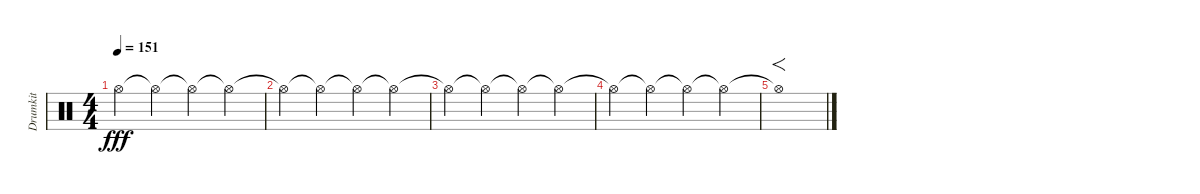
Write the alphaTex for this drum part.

\track ("Drumkit" "Drumkit") {instrument percussion}
\staff {score}
\articulation defaults
\ts (4 4)
\tempo 151
\clef neutral
\ks c "Hi-Hat (open)"{t}.4{dy fff} "Hi-Hat (open)"{t}.4 "Hi-Hat (open)"{t}.4 "Hi-Hat (open)"{t}.4
|
"Hi-Hat (open)"{t}.4 "Hi-Hat (open)"{t}.4 "Hi-Hat (open)"{t}.4 "Hi-Hat (open)"{t}.4 |
"Hi-Hat (open)"{t}.4 "Hi-Hat (open)"{t}.4 "Hi-Hat (open)"{t}.4 "Hi-Hat (open)"{t}.4 |
"Hi-Hat (open)"{t}.4 "Hi-Hat (open)"{t}.4 "Hi-Hat (open)"{t}.4 "Hi-Hat (open)"{t}.4 |
"Hi-Hat (open)"{t}.1{f}
